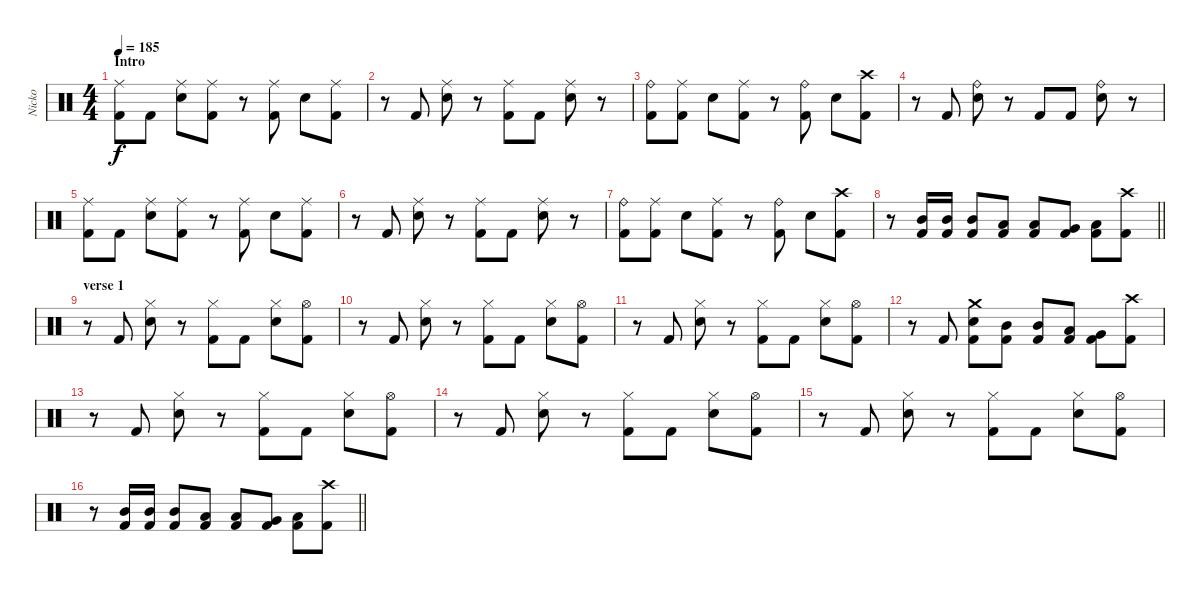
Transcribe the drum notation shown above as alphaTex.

\track ("Nicko" "Nicko") {instrument percussion}
\staff {score}
\articulation defaults
\ts (4 4)
\section ("" "Intro")
\tempo 185
\clef neutral
\ks c
("Ride (middle)" "Kick (hit) 2").8{dy f} "Kick (hit) 2".8 ("Ride (middle)" "Snare (hit) 2").8 ("Ride (middle)" "Kick (hit) 2").8 r.8 ("Ride (middle)" "Kick (hit) 2").8 "Snare (hit) 2".8 ("Ride (middle)" "Kick (hit) 2").8 |
r.8 "Kick (hit) 2".8 ("Ride (middle)" "Snare (hit) 2").8 r.8 ("Ride (middle)" "Kick (hit) 2").8 "Kick (hit) 2".8 ("Ride (middle)" "Snare (hit) 2").8 r.8 |
("Ride (bell)" "Kick (hit) 2").8 ("Ride (middle)" "Kick (hit) 2").8 "Snare (hit) 2".8 ("Ride (middle)" "Kick (hit) 2").8 r.8 ("Ride (bell)" "Kick (hit) 2").8 "Snare (hit) 2".8 ("Crash high (hit)" "Kick (hit) 2").8 |
r.8 "Kick (hit) 2".8 ("Ride (bell)" "Snare (hit) 2").8 r.8 "Kick (hit) 2".8 "Kick (hit) 2".8 ("Ride (bell)" "Snare (hit) 2").8 r.8 |
("Ride (middle)" "Kick (hit) 2").8 "Kick (hit) 2".8 ("Ride (middle)" "Snare (hit) 2").8 ("Ride (middle)" "Kick (hit) 2").8 r.8 ("Ride (middle)" "Kick (hit) 2").8 "Snare (hit) 2".8 ("Ride (middle)" "Kick (hit) 2").8 |
r.8 "Kick (hit) 2".8 ("Ride (middle)" "Snare (hit) 2").8 r.8 ("Ride (middle)" "Kick (hit) 2").8 "Kick (hit) 2".8 ("Ride (middle)" "Snare (hit) 2").8 r.8 |
("Ride (bell)" "Kick (hit) 2").8 ("Ride (middle)" "Kick (hit) 2").8 "Snare (hit) 2".8 ("Ride (middle)" "Kick (hit) 2").8 r.8 ("Ride (bell)" "Kick (hit) 2").8 "Snare (hit) 2".8 ("Crash high (hit)" "Kick (hit) 2").8 |
\barLineRight lightlight
r.8 ("Mid Tom (hit)" "Kick (hit) 2").16 ("Mid Tom (hit)" "Kick (hit) 2").16 ("Mid Tom (hit)" "Kick (hit) 2").8 ("Low Tom (hit)" "Kick (hit) 2").8 ("Low Tom (hit)" "Kick (hit) 2").8 ("Very Low Tom (hit)" "Kick (hit) 2").8 ("Low Floor Tom (hit)" "Kick (hit) 2").8 ("Crash high (hit)" "Kick (hit) 2").8 |
\section ("" "verse 1")
r.8 "Kick (hit) 2".8 ("Hi-Hat (closed)" "Snare (hit) 2").8 r.8 ("Hi-Hat (closed)" "Kick (hit) 2").8 "Kick (hit) 2".8 ("Hi-Hat (closed)" "Snare (hit) 2").8 ("Hi-Hat (open)" "Kick (hit) 2").8 |
r.8 "Kick (hit) 2".8 ("Hi-Hat (closed)" "Snare (hit) 2").8 r.8 ("Hi-Hat (closed)" "Kick (hit) 2").8 "Kick (hit) 2".8 ("Hi-Hat (closed)" "Snare (hit) 2").8 ("Hi-Hat (open)" "Kick (hit) 2").8 |
r.8 "Kick (hit) 2".8 ("Hi-Hat (closed)" "Snare (hit) 2").8 r.8 ("Hi-Hat (closed)" "Kick (hit) 2").8 "Kick (hit) 2".8 ("Hi-Hat (closed)" "Snare (hit) 2").8 ("Hi-Hat (open)" "Kick (hit) 2").8 |
r.8 "Kick (hit) 2".8 ("Crash medium (hit)" "Snare (hit) 2" "Kick (hit) 2").8 ("Mid Tom (hit)" "Kick (hit) 2").8 ("Mid Tom (hit)" "Kick (hit) 2").8 ("Low Tom (hit)" "Kick (hit) 2").8 ("Very Low Tom (hit)" "Kick (hit) 2").8 ("Crash high (hit)" "Kick (hit) 2").8 |
r.8 "Kick (hit) 2".8 ("Hi-Hat (closed)" "Snare (hit) 2").8 r.8 ("Hi-Hat (closed)" "Kick (hit) 2").8 "Kick (hit) 2".8 ("Hi-Hat (closed)" "Snare (hit) 2").8 ("Hi-Hat (open)" "Kick (hit) 2").8 |
r.8 "Kick (hit) 2".8 ("Hi-Hat (closed)" "Snare (hit) 2").8 r.8 ("Hi-Hat (closed)" "Kick (hit) 2").8 "Kick (hit) 2".8 ("Hi-Hat (closed)" "Snare (hit) 2").8 ("Hi-Hat (open)" "Kick (hit) 2").8 |
r.8 "Kick (hit) 2".8 ("Hi-Hat (closed)" "Snare (hit) 2").8 r.8 ("Hi-Hat (closed)" "Kick (hit) 2").8 "Kick (hit) 2".8 ("Hi-Hat (closed)" "Snare (hit) 2").8 ("Hi-Hat (open)" "Kick (hit) 2").8 |
\barLineRight lightlight
r.8 ("Mid Tom (hit)" "Kick (hit) 2").16 ("Mid Tom (hit)" "Kick (hit) 2").16 ("Mid Tom (hit)" "Kick (hit) 2").8 ("Low Tom (hit)" "Kick (hit) 2").8 ("Low Tom (hit)" "Kick (hit) 2").8 ("Very Low Tom (hit)" "Kick (hit) 2").8 ("Low Floor Tom (hit)" "Kick (hit) 2").8 ("Crash high (hit)" "Kick (hit) 2").8
